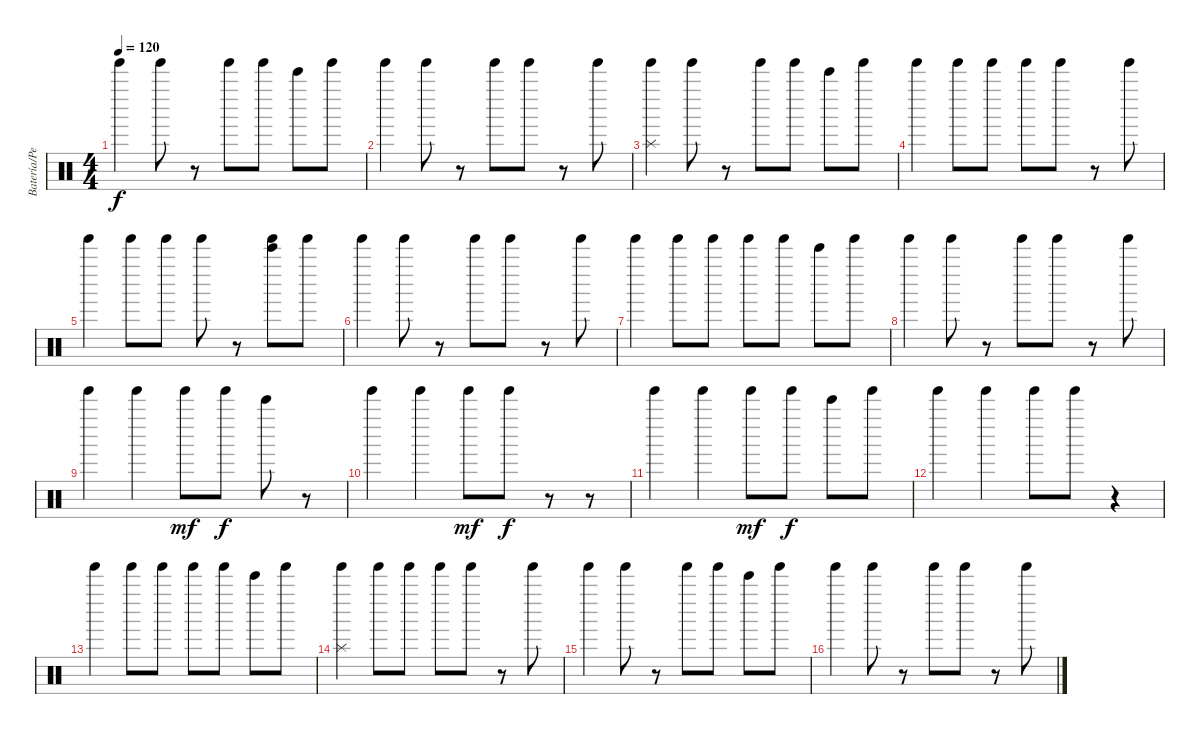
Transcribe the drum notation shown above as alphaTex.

\track ("Batería/Perc." "Batería/Pe") {instrument percussion}
\staff {score}
\articulation defaults
\ts (4 4)
\tempo 120
\clef neutral
\ks c "Tinkle Bell (hit)".4{dy f} "Tinkle Bell (hit)".8
r.8 "Tinkle Bell (hit)".8 "Tinkle Bell (hit)".8 "Bell Tree (hit)".8 "Tinkle Bell (hit)".8 |
"Tinkle Bell (hit)".4 "Tinkle Bell (hit)".8 r.8 "Tinkle Bell (hit)".8 "Tinkle Bell (hit)".8 r.8 "Tinkle Bell (hit)".8 |
("Splash (hit)" "Tinkle Bell (hit)").4 "Tinkle Bell (hit)".8 r.8 "Tinkle Bell (hit)".8 "Tinkle Bell (hit)".8 "Bell Tree (hit)".8 "Tinkle Bell (hit)".8 |
"Tinkle Bell (hit)".4 "Tinkle Bell (hit)".8 "Tinkle Bell (hit)".8 "Tinkle Bell (hit)".8 "Tinkle Bell (hit)".8 r.8 "Tinkle Bell (hit)".8 |
"Tinkle Bell (hit)".4 "Tinkle Bell (hit)".8 "Tinkle Bell (hit)".8 "Tinkle Bell (hit)".8 r.8 ("Bell Tree (hit)" "Tinkle Bell (hit)").8 "Tinkle Bell (hit)".8 |
"Tinkle Bell (hit)".4 "Tinkle Bell (hit)".8 r.8 "Tinkle Bell (hit)".8 "Tinkle Bell (hit)".8 r.8 "Tinkle Bell (hit)".8 |
"Tinkle Bell (hit)".4 "Tinkle Bell (hit)".8 "Tinkle Bell (hit)".8 "Tinkle Bell (hit)".8 "Tinkle Bell (hit)".8 "Bell Tree (hit)".8 "Tinkle Bell (hit)".8 |
"Tinkle Bell (hit)".4 "Tinkle Bell (hit)".8 r.8 "Tinkle Bell (hit)".8 "Tinkle Bell (hit)".8 r.8 "Tinkle Bell (hit)".8 |
"Tinkle Bell (hit)".4 "Tinkle Bell (hit)".4 "Tinkle Bell (hit)".8{dy mf} "Tinkle Bell (hit)".8{dy f} "Bell Tree (hit)".8 r.8 |
"Tinkle Bell (hit)".4 "Tinkle Bell (hit)".4 "Tinkle Bell (hit)".8{dy mf} "Tinkle Bell (hit)".8{dy f} r.8 r.8 |
"Tinkle Bell (hit)".4 "Tinkle Bell (hit)".4 "Tinkle Bell (hit)".8{dy mf} "Tinkle Bell (hit)".8{dy f} "Bell Tree (hit)".8 "Tinkle Bell (hit)".8 |
"Tinkle Bell (hit)".4 "Tinkle Bell (hit)".4 "Tinkle Bell (hit)".8 "Tinkle Bell (hit)".8 r.4 |
"Tinkle Bell (hit)".4 "Tinkle Bell (hit)".8 "Tinkle Bell (hit)".8 "Tinkle Bell (hit)".8 "Tinkle Bell (hit)".8 "Bell Tree (hit)".8 "Tinkle Bell (hit)".8 |
("Splash (hit)" "Tinkle Bell (hit)").4 "Tinkle Bell (hit)".8 "Tinkle Bell (hit)".8 "Tinkle Bell (hit)".8 "Tinkle Bell (hit)".8 r.8 "Tinkle Bell (hit)".8 |
"Tinkle Bell (hit)".4 "Tinkle Bell (hit)".8 r.8 "Tinkle Bell (hit)".8 "Tinkle Bell (hit)".8 "Bell Tree (hit)".8 "Tinkle Bell (hit)".8 |
"Tinkle Bell (hit)".4 "Tinkle Bell (hit)".8 r.8 "Tinkle Bell (hit)".8 "Tinkle Bell (hit)".8 r.8 "Tinkle Bell (hit)".8
